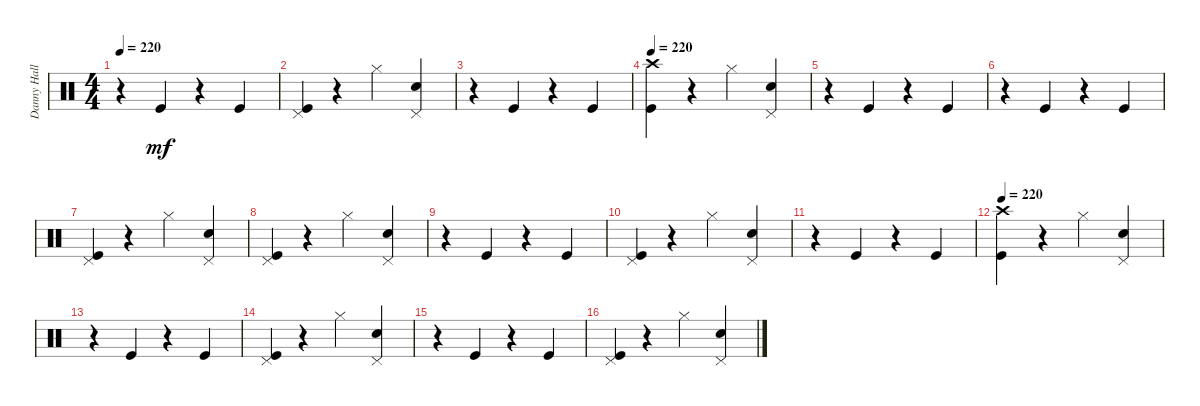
\track ("Danny Hall" "Danny Hall") {instrument percussion}
\staff {score}
\articulation defaults
\ts (4 4)
\tempo 220
\clef neutral
\ks c
r.4{dy mf} "Kick (hit)".4 r.4 "Kick (hit)".4 |
("Pedal Hi-Hat (hit)" "Kick (hit)").4 r.4 "Hi-Hat (closed)".4 ("Pedal Hi-Hat (hit)" "Snare (hit) 2").4 |
r.4 "Kick (hit)".4 r.4 "Kick (hit)".4 |
\tempo 220
("Crash high (hit)" "Kick (hit)").4 r.4 "Hi-Hat (closed)".4 ("Pedal Hi-Hat (hit)" "Snare (hit) 2").4 |
r.4 "Kick (hit)".4 r.4 "Kick (hit)".4 |
r.4 "Kick (hit)".4 r.4 "Kick (hit)".4 |
("Pedal Hi-Hat (hit)" "Kick (hit)").4 r.4 "Hi-Hat (closed)".4 ("Pedal Hi-Hat (hit)" "Snare (hit) 2").4 |
("Pedal Hi-Hat (hit)" "Kick (hit)").4 r.4 "Hi-Hat (closed)".4 ("Pedal Hi-Hat (hit)" "Snare (hit) 2").4 |
r.4 "Kick (hit)".4 r.4 "Kick (hit)".4 |
("Pedal Hi-Hat (hit)" "Kick (hit)").4 r.4 "Hi-Hat (closed)".4 ("Pedal Hi-Hat (hit)" "Snare (hit) 2").4 |
r.4 "Kick (hit)".4 r.4 "Kick (hit)".4 |
\tempo 220
("Crash high (hit)" "Kick (hit)").4 r.4 "Hi-Hat (closed)".4 ("Pedal Hi-Hat (hit)" "Snare (hit) 2").4 |
r.4 "Kick (hit)".4 r.4 "Kick (hit)".4 |
("Pedal Hi-Hat (hit)" "Kick (hit)").4 r.4 "Hi-Hat (closed)".4 ("Pedal Hi-Hat (hit)" "Snare (hit) 2").4 |
r.4 "Kick (hit)".4 r.4 "Kick (hit)".4 |
("Pedal Hi-Hat (hit)" "Kick (hit)").4 r.4 "Hi-Hat (closed)".4 ("Pedal Hi-Hat (hit)" "Snare (hit) 2").4
